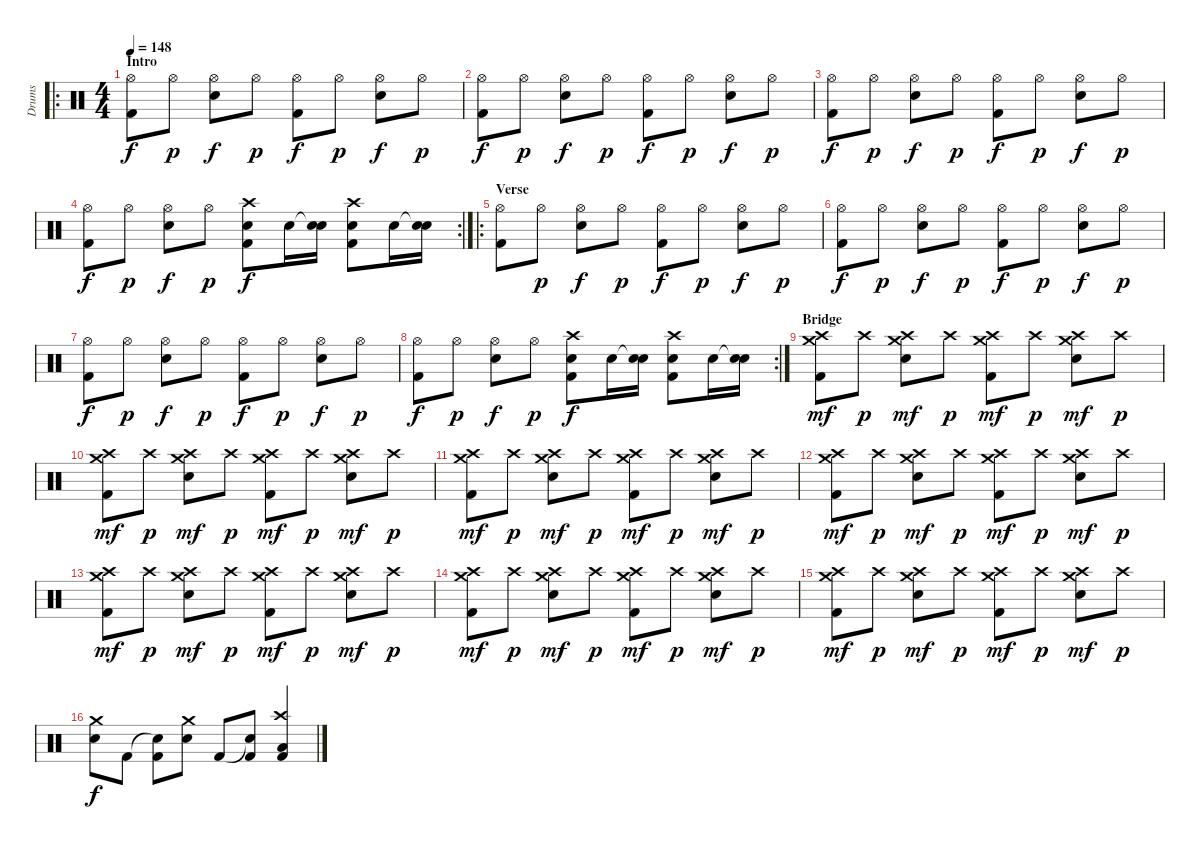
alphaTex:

\track ("Drums" "Drums") {instrument percussion}
\staff {score}
\articulation defaults
\ro
\ts (4 4)
\section ("" "Intro")
\tempo 148
\clef neutral
\ks c
("Hi-Hat (open)" "Kick (hit) 2").8{dy f} "Hi-Hat (open)".8{dy p} ("Hi-Hat (open)" "Snare (hit) 2").8{dy f} "Hi-Hat (open)".8{dy p} ("Hi-Hat (open)" "Kick (hit) 2").8{dy f} "Hi-Hat (open)".8{dy p} ("Hi-Hat (open)" "Snare (hit) 2").8{dy f} "Hi-Hat (open)".8{dy p} |
("Hi-Hat (open)" "Kick (hit) 2").8{dy f} "Hi-Hat (open)".8{dy p} ("Hi-Hat (open)" "Snare (hit) 2").8{dy f} "Hi-Hat (open)".8{dy p} ("Hi-Hat (open)" "Kick (hit) 2").8{dy f} "Hi-Hat (open)".8{dy p} ("Hi-Hat (open)" "Snare (hit) 2").8{dy f} "Hi-Hat (open)".8{dy p} |
("Hi-Hat (open)" "Kick (hit) 2").8{dy f} "Hi-Hat (open)".8{dy p} ("Hi-Hat (open)" "Snare (hit) 2").8{dy f} "Hi-Hat (open)".8{dy p} ("Hi-Hat (open)" "Kick (hit) 2").8{dy f} "Hi-Hat (open)".8{dy p} ("Hi-Hat (open)" "Snare (hit) 2").8{dy f} "Hi-Hat (open)".8{dy p} |
\rc 2
("Hi-Hat (open)" "Kick (hit) 2").8{dy f} "Hi-Hat (open)".8{dy p} ("Hi-Hat (open)" "Snare (hit) 2").8{dy f} "Hi-Hat (open)".8{dy p} ("Crash high (hit)" "Snare (hit) 2" "Kick (hit) 2").8{dy f} "Snare (hit) 2".16 ("Snare (hit)"{t} "Snare (hit) 2").16 ("Crash high (hit)" "Snare (hit) 2" "Kick (hit) 2").8 "Snare (hit) 2".16 ("Snare (hit)"{t} "Snare (hit) 2").16 |
\ro
\section ("" "Verse")
("Hi-Hat (open)" "Kick (hit) 2").8 "Hi-Hat (open)".8{dy p} ("Hi-Hat (open)" "Snare (hit) 2").8{dy f} "Hi-Hat (open)".8{dy p} ("Hi-Hat (open)" "Kick (hit) 2").8{dy f} "Hi-Hat (open)".8{dy p} ("Hi-Hat (open)" "Snare (hit) 2").8{dy f} "Hi-Hat (open)".8{dy p} |
("Hi-Hat (open)" "Kick (hit) 2").8{dy f} "Hi-Hat (open)".8{dy p} ("Hi-Hat (open)" "Snare (hit) 2").8{dy f} "Hi-Hat (open)".8{dy p} ("Hi-Hat (open)" "Kick (hit) 2").8{dy f} "Hi-Hat (open)".8{dy p} ("Hi-Hat (open)" "Snare (hit) 2").8{dy f} "Hi-Hat (open)".8{dy p} |
("Hi-Hat (open)" "Kick (hit) 2").8{dy f} "Hi-Hat (open)".8{dy p} ("Hi-Hat (open)" "Snare (hit) 2").8{dy f} "Hi-Hat (open)".8{dy p} ("Hi-Hat (open)" "Kick (hit) 2").8{dy f} "Hi-Hat (open)".8{dy p} ("Hi-Hat (open)" "Snare (hit) 2").8{dy f} "Hi-Hat (open)".8{dy p} |
\rc 2
("Hi-Hat (open)" "Kick (hit) 2").8{dy f} "Hi-Hat (open)".8{dy p} ("Hi-Hat (open)" "Snare (hit) 2").8{dy f} "Hi-Hat (open)".8{dy p} ("Crash high (hit)" "Snare (hit) 2" "Kick (hit) 2").8{dy f} "Snare (hit) 2".16 ("Snare (hit)"{t} "Snare (hit) 2").16 ("Crash high (hit)" "Snare (hit) 2" "Kick (hit) 2").8 "Snare (hit) 2".16 ("Snare (hit)"{t} "Snare (hit) 2").16 |
\section ("" "Bridge")
("Crash high (hit)" "Crash medium (hit)" "Kick (hit) 2").8{dy mf} "Crash high (hit)".8{dy p} ("Crash high (hit)" "Crash medium (hit)" "Snare (hit) 2").8{dy mf} "Crash high (hit)".8{dy p} ("Crash high (hit)" "Crash medium (hit)" "Kick (hit) 2").8{dy mf} "Crash high (hit)".8{dy p} ("Crash high (hit)" "Crash medium (hit)" "Snare (hit) 2").8{dy mf} "Crash high (hit)".8{dy p} |
("Crash high (hit)" "Crash medium (hit)" "Kick (hit) 2").8{dy mf} "Crash high (hit)".8{dy p} ("Crash high (hit)" "Crash medium (hit)" "Snare (hit) 2").8{dy mf} "Crash high (hit)".8{dy p} ("Crash high (hit)" "Crash medium (hit)" "Kick (hit) 2").8{dy mf} "Crash high (hit)".8{dy p} ("Crash high (hit)" "Crash medium (hit)" "Snare (hit) 2").8{dy mf} "Crash high (hit)".8{dy p} |
("Crash high (hit)" "Crash medium (hit)" "Kick (hit) 2").8{dy mf} "Crash high (hit)".8{dy p} ("Crash high (hit)" "Crash medium (hit)" "Snare (hit) 2").8{dy mf} "Crash high (hit)".8{dy p} ("Crash high (hit)" "Crash medium (hit)" "Kick (hit) 2").8{dy mf} "Crash high (hit)".8{dy p} ("Crash high (hit)" "Crash medium (hit)" "Snare (hit) 2").8{dy mf} "Crash high (hit)".8{dy p} |
("Crash high (hit)" "Crash medium (hit)" "Kick (hit) 2").8{dy mf} "Crash high (hit)".8{dy p} ("Crash high (hit)" "Crash medium (hit)" "Snare (hit) 2").8{dy mf} "Crash high (hit)".8{dy p} ("Crash high (hit)" "Crash medium (hit)" "Kick (hit) 2").8{dy mf} "Crash high (hit)".8{dy p} ("Crash high (hit)" "Crash medium (hit)" "Snare (hit) 2").8{dy mf} "Crash high (hit)".8{dy p} |
("Crash high (hit)" "Crash medium (hit)" "Kick (hit) 2").8{dy mf} "Crash high (hit)".8{dy p} ("Crash high (hit)" "Crash medium (hit)" "Snare (hit) 2").8{dy mf} "Crash high (hit)".8{dy p} ("Crash high (hit)" "Crash medium (hit)" "Kick (hit) 2").8{dy mf} "Crash high (hit)".8{dy p} ("Crash high (hit)" "Crash medium (hit)" "Snare (hit) 2").8{dy mf} "Crash high (hit)".8{dy p} |
("Crash high (hit)" "Crash medium (hit)" "Kick (hit) 2").8{dy mf} "Crash high (hit)".8{dy p} ("Crash high (hit)" "Crash medium (hit)" "Snare (hit) 2").8{dy mf} "Crash high (hit)".8{dy p} ("Crash high (hit)" "Crash medium (hit)" "Kick (hit) 2").8{dy mf} "Crash high (hit)".8{dy p} ("Crash high (hit)" "Crash medium (hit)" "Snare (hit) 2").8{dy mf} "Crash high (hit)".8{dy p} |
("Crash high (hit)" "Crash medium (hit)" "Kick (hit) 2").8{dy mf} "Crash high (hit)".8{dy p} ("Crash high (hit)" "Crash medium (hit)" "Snare (hit) 2").8{dy mf} "Crash high (hit)".8{dy p} ("Crash high (hit)" "Crash medium (hit)" "Kick (hit) 2").8{dy mf} "Crash high (hit)".8{dy p} ("Crash high (hit)" "Crash medium (hit)" "Snare (hit) 2").8{dy mf} "Crash high (hit)".8{dy p} |
("Crash medium (hit)" "Snare (hit) 2").8{dy f} "Kick (hit) 2".8 ("Snare (hit)"{t} "Kick (hit) 2").8 ("Crash medium (hit)" "Snare (hit) 2").8 "Kick (hit) 2".8 ("Snare (hit)"{t} "Kick (hit) 2").8 ("Crash high (hit)" "Low Floor Tom (hit)" "Kick (hit) 2").4
